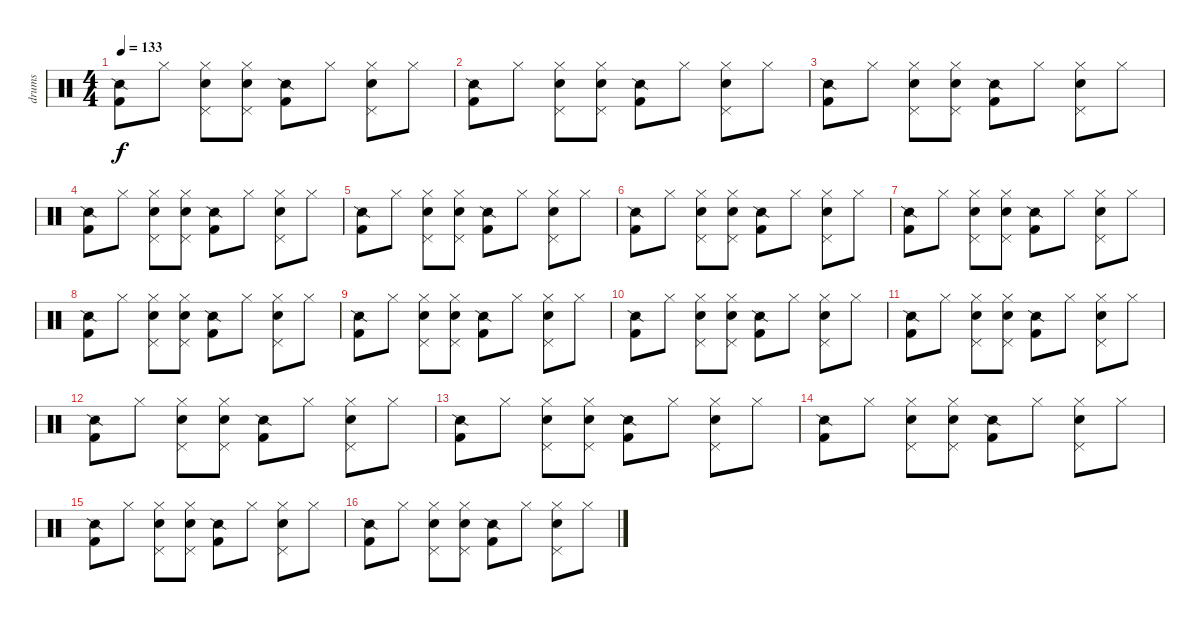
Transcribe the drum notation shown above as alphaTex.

\track ("drums" "drums") {instrument percussion}
\staff {score}
\articulation defaults
\ts (4 4)
\tempo 133
\clef neutral
\ks c
("Snare (side stick) 2" "Kick (hit) 2").8{dy f} "Hi-Hat (closed)".8 ("Hi-Hat (closed)" "Electric Snare (hit)" "Pedal Hi-Hat (hit)").8 ("Hi-Hat (closed)" "Electric Snare (hit)" "Pedal Hi-Hat (hit)").8 ("Snare (side stick) 2" "Kick (hit) 2").8 "Hi-Hat (closed)".8 ("Hi-Hat (closed)" "Electric Snare (hit)" "Pedal Hi-Hat (hit)").8 "Hi-Hat (closed)".8 |
("Snare (side stick) 2" "Kick (hit) 2").8 "Hi-Hat (closed)".8 ("Hi-Hat (closed)" "Electric Snare (hit)" "Pedal Hi-Hat (hit)").8 ("Hi-Hat (closed)" "Electric Snare (hit)" "Pedal Hi-Hat (hit)").8 ("Snare (side stick) 2" "Kick (hit) 2").8 "Hi-Hat (closed)".8 ("Hi-Hat (closed)" "Electric Snare (hit)" "Pedal Hi-Hat (hit)").8 "Hi-Hat (closed)".8 |
("Snare (side stick) 2" "Kick (hit) 2").8 "Hi-Hat (closed)".8 ("Hi-Hat (closed)" "Electric Snare (hit)" "Pedal Hi-Hat (hit)").8 ("Hi-Hat (closed)" "Electric Snare (hit)" "Pedal Hi-Hat (hit)").8 ("Snare (side stick) 2" "Kick (hit) 2").8 "Hi-Hat (closed)".8 ("Hi-Hat (closed)" "Electric Snare (hit)" "Pedal Hi-Hat (hit)").8 "Hi-Hat (closed)".8 |
("Snare (side stick) 2" "Kick (hit) 2").8 "Hi-Hat (closed)".8 ("Hi-Hat (closed)" "Electric Snare (hit)" "Pedal Hi-Hat (hit)").8 ("Hi-Hat (closed)" "Electric Snare (hit)" "Pedal Hi-Hat (hit)").8 ("Snare (side stick) 2" "Kick (hit) 2").8 "Hi-Hat (closed)".8 ("Hi-Hat (closed)" "Electric Snare (hit)" "Pedal Hi-Hat (hit)").8 "Hi-Hat (closed)".8 |
("Snare (side stick) 2" "Kick (hit) 2").8 "Hi-Hat (closed)".8 ("Hi-Hat (closed)" "Electric Snare (hit)" "Pedal Hi-Hat (hit)").8 ("Hi-Hat (closed)" "Electric Snare (hit)" "Pedal Hi-Hat (hit)").8 ("Snare (side stick) 2" "Kick (hit) 2").8 "Hi-Hat (closed)".8 ("Hi-Hat (closed)" "Electric Snare (hit)" "Pedal Hi-Hat (hit)").8 "Hi-Hat (closed)".8 |
("Snare (side stick) 2" "Kick (hit) 2").8 "Hi-Hat (closed)".8 ("Hi-Hat (closed)" "Electric Snare (hit)" "Pedal Hi-Hat (hit)").8 ("Hi-Hat (closed)" "Electric Snare (hit)" "Pedal Hi-Hat (hit)").8 ("Snare (side stick) 2" "Kick (hit) 2").8 "Hi-Hat (closed)".8 ("Hi-Hat (closed)" "Electric Snare (hit)" "Pedal Hi-Hat (hit)").8 "Hi-Hat (closed)".8 |
("Snare (side stick) 2" "Kick (hit) 2").8 "Hi-Hat (closed)".8 ("Hi-Hat (closed)" "Electric Snare (hit)" "Pedal Hi-Hat (hit)").8 ("Hi-Hat (closed)" "Electric Snare (hit)" "Pedal Hi-Hat (hit)").8 ("Snare (side stick) 2" "Kick (hit) 2").8 "Hi-Hat (closed)".8 ("Hi-Hat (closed)" "Electric Snare (hit)" "Pedal Hi-Hat (hit)").8 "Hi-Hat (closed)".8 |
("Snare (side stick) 2" "Kick (hit) 2").8 "Hi-Hat (closed)".8 ("Hi-Hat (closed)" "Electric Snare (hit)" "Pedal Hi-Hat (hit)").8 ("Hi-Hat (closed)" "Electric Snare (hit)" "Pedal Hi-Hat (hit)").8 ("Snare (side stick) 2" "Kick (hit) 2").8 "Hi-Hat (closed)".8 ("Hi-Hat (closed)" "Electric Snare (hit)" "Pedal Hi-Hat (hit)").8 "Hi-Hat (closed)".8 |
("Snare (side stick) 2" "Kick (hit) 2").8 "Hi-Hat (closed)".8 ("Hi-Hat (closed)" "Electric Snare (hit)" "Pedal Hi-Hat (hit)").8 ("Hi-Hat (closed)" "Electric Snare (hit)" "Pedal Hi-Hat (hit)").8 ("Snare (side stick) 2" "Kick (hit) 2").8 "Hi-Hat (closed)".8 ("Hi-Hat (closed)" "Electric Snare (hit)" "Pedal Hi-Hat (hit)").8 "Hi-Hat (closed)".8 |
("Snare (side stick) 2" "Kick (hit) 2").8 "Hi-Hat (closed)".8 ("Hi-Hat (closed)" "Electric Snare (hit)" "Pedal Hi-Hat (hit)").8 ("Hi-Hat (closed)" "Electric Snare (hit)" "Pedal Hi-Hat (hit)").8 ("Snare (side stick) 2" "Kick (hit) 2").8 "Hi-Hat (closed)".8 ("Hi-Hat (closed)" "Electric Snare (hit)" "Pedal Hi-Hat (hit)").8 "Hi-Hat (closed)".8 |
("Snare (side stick) 2" "Kick (hit) 2").8 "Hi-Hat (closed)".8 ("Hi-Hat (closed)" "Electric Snare (hit)" "Pedal Hi-Hat (hit)").8 ("Hi-Hat (closed)" "Electric Snare (hit)" "Pedal Hi-Hat (hit)").8 ("Snare (side stick) 2" "Kick (hit) 2").8 "Hi-Hat (closed)".8 ("Hi-Hat (closed)" "Electric Snare (hit)" "Pedal Hi-Hat (hit)").8 "Hi-Hat (closed)".8 |
("Snare (side stick) 2" "Kick (hit) 2").8 "Hi-Hat (closed)".8 ("Hi-Hat (closed)" "Electric Snare (hit)" "Pedal Hi-Hat (hit)").8 ("Hi-Hat (closed)" "Electric Snare (hit)" "Pedal Hi-Hat (hit)").8 ("Snare (side stick) 2" "Kick (hit) 2").8 "Hi-Hat (closed)".8 ("Hi-Hat (closed)" "Electric Snare (hit)" "Pedal Hi-Hat (hit)").8 "Hi-Hat (closed)".8 |
("Snare (side stick) 2" "Kick (hit) 2").8 "Hi-Hat (closed)".8 ("Hi-Hat (closed)" "Electric Snare (hit)" "Pedal Hi-Hat (hit)").8 ("Hi-Hat (closed)" "Electric Snare (hit)" "Pedal Hi-Hat (hit)").8 ("Snare (side stick) 2" "Kick (hit) 2").8 "Hi-Hat (closed)".8 ("Hi-Hat (closed)" "Electric Snare (hit)" "Pedal Hi-Hat (hit)").8 "Hi-Hat (closed)".8 |
("Snare (side stick) 2" "Kick (hit) 2").8 "Hi-Hat (closed)".8 ("Hi-Hat (closed)" "Electric Snare (hit)" "Pedal Hi-Hat (hit)").8 ("Hi-Hat (closed)" "Electric Snare (hit)" "Pedal Hi-Hat (hit)").8 ("Snare (side stick) 2" "Kick (hit) 2").8 "Hi-Hat (closed)".8 ("Hi-Hat (closed)" "Electric Snare (hit)" "Pedal Hi-Hat (hit)").8 "Hi-Hat (closed)".8 |
("Snare (side stick) 2" "Kick (hit) 2").8 "Hi-Hat (closed)".8 ("Hi-Hat (closed)" "Electric Snare (hit)" "Pedal Hi-Hat (hit)").8 ("Hi-Hat (closed)" "Electric Snare (hit)" "Pedal Hi-Hat (hit)").8 ("Snare (side stick) 2" "Kick (hit) 2").8 "Hi-Hat (closed)".8 ("Hi-Hat (closed)" "Electric Snare (hit)" "Pedal Hi-Hat (hit)").8 "Hi-Hat (closed)".8 |
("Snare (side stick) 2" "Kick (hit) 2").8 "Hi-Hat (closed)".8 ("Hi-Hat (closed)" "Electric Snare (hit)" "Pedal Hi-Hat (hit)").8 ("Hi-Hat (closed)" "Electric Snare (hit)" "Pedal Hi-Hat (hit)").8 ("Snare (side stick) 2" "Kick (hit) 2").8 "Hi-Hat (closed)".8 ("Hi-Hat (closed)" "Electric Snare (hit)" "Pedal Hi-Hat (hit)").8 "Hi-Hat (closed)".8
